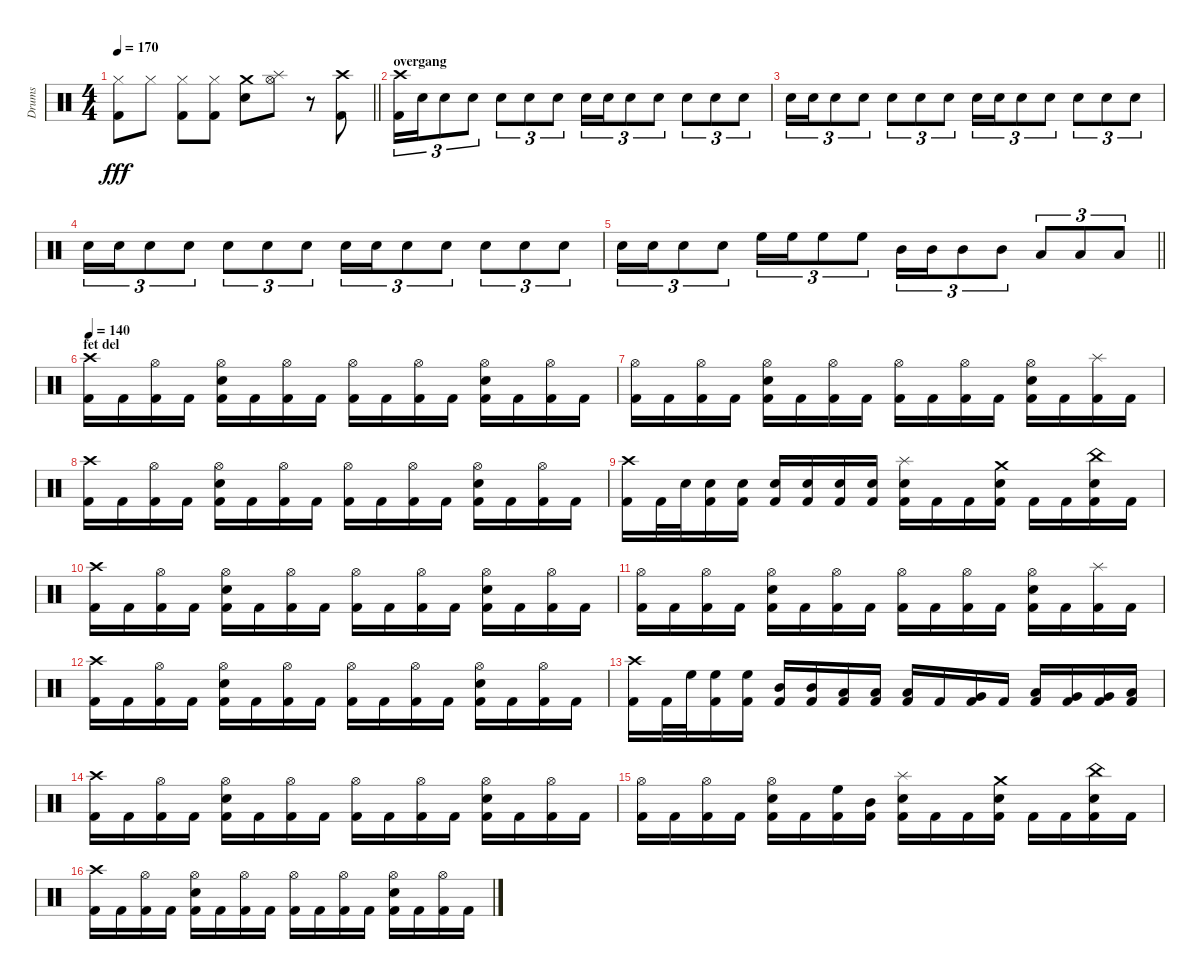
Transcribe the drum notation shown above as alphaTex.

\track ("Drums" "Drums") {instrument percussion}
\staff {score}
\articulation defaults
\ts (4 4)
\tempo 170
\clef neutral
\barLineRight lightlight
\ks c
("Hi-Hat (closed)" "Kick (hit) 2").8{dy fff} "Hi-Hat (closed)".8 ("Hi-Hat (closed)" "Kick (hit) 2").8 ("Hi-Hat (closed)" "Kick (hit) 2").8 ("Crash medium (hit)" "Snare (hit) 2").8 ("Splash (hit)" "Hi-Hat (open)").8 r.8 ("Crash high (hit)" "Kick (hit) 2").8 |
\section ("" "overgang")
("Crash high (hit)" "Kick (hit) 2").16{tu (3 2)} "Snare (hit) 2".16{tu (3 2)} "Snare (hit) 2".8{tu (3 2)} "Snare (hit) 2".8{tu (3 2)} "Snare (hit) 2".8{tu (3 2)} "Snare (hit) 2".8{tu (3 2)} "Snare (hit) 2".8{tu (3 2)} "Snare (hit) 2".16{tu (3 2)} "Snare (hit) 2".16{tu (3 2)} "Snare (hit) 2".8{tu (3 2)} "Snare (hit) 2".8{tu (3 2)} "Snare (hit) 2".8{tu (3 2)} "Snare (hit) 2".8{tu (3 2)} "Snare (hit) 2".8{tu (3 2)} |
"Snare (hit) 2".16{tu (3 2)} "Snare (hit) 2".16{tu (3 2)} "Snare (hit) 2".8{tu (3 2)} "Snare (hit) 2".8{tu (3 2)} "Snare (hit) 2".8{tu (3 2)} "Snare (hit) 2".8{tu (3 2)} "Snare (hit) 2".8{tu (3 2)} "Snare (hit) 2".16{tu (3 2)} "Snare (hit) 2".16{tu (3 2)} "Snare (hit) 2".8{tu (3 2)} "Snare (hit) 2".8{tu (3 2)} "Snare (hit) 2".8{tu (3 2)} "Snare (hit) 2".8{tu (3 2)} "Snare (hit) 2".8{tu (3 2)} |
"Snare (hit) 2".16{tu (3 2)} "Snare (hit) 2".16{tu (3 2)} "Snare (hit) 2".8{tu (3 2)} "Snare (hit) 2".8{tu (3 2)} "Snare (hit) 2".8{tu (3 2)} "Snare (hit) 2".8{tu (3 2)} "Snare (hit) 2".8{tu (3 2)} "Snare (hit) 2".16{tu (3 2)} "Snare (hit) 2".16{tu (3 2)} "Snare (hit) 2".8{tu (3 2)} "Snare (hit) 2".8{tu (3 2)} "Snare (hit) 2".8{tu (3 2)} "Snare (hit) 2".8{tu (3 2)} "Snare (hit) 2".8{tu (3 2)} |
\barLineRight lightlight "Snare (hit) 2".16{tu (3 2)} "Snare (hit) 2".16{tu (3 2)} "Snare (hit) 2".8{tu (3 2)} "Snare (hit) 2".8{tu (3 2)} "High Floor Tom (hit)".16{tu (3 2)} "High Floor Tom (hit)".16{tu (3 2)} "High Floor Tom (hit)".8{tu (3 2)} "High Floor Tom (hit)".8{tu (3 2)} "Mid Tom (hit)".16{tu (3 2)} "Mid Tom (hit)".16{tu (3 2)} "Mid Tom (hit)".8{tu (3 2)} "Mid Tom (hit)".8{tu (3 2)} "Low Tom (hit)".8{tu (3 2)} "Low Tom (hit)".8{tu (3 2)} "Low Tom (hit)".8{tu (3 2)}
|
\section ("" "fet del")
\tempo 140
("Crash high (hit)" "Kick (hit) 2").16 "Kick (hit) 2".16 ("Hi-Hat (open)" "Kick (hit) 2").16 "Kick (hit) 2".16 ("Snare (hit) 2" "Hi-Hat (open)" "Kick (hit) 2").16 "Kick (hit) 2".16 ("Hi-Hat (open)" "Kick (hit) 2").16 "Kick (hit) 2".16 ("Hi-Hat (open)" "Kick (hit) 2").16 "Kick (hit) 2".16 ("Hi-Hat (open)" "Kick (hit) 2").16 "Kick (hit) 2".16 ("Snare (hit) 2" "Hi-Hat (open)" "Kick (hit) 2").16 "Kick (hit) 2".16 ("Hi-Hat (open)" "Kick (hit) 2").16 "Kick (hit) 2".16 |
("Hi-Hat (open)" "Kick (hit) 2").16 "Kick (hit) 2".16 ("Hi-Hat (open)" "Kick (hit) 2").16 "Kick (hit) 2".16 ("Snare (hit) 2" "Hi-Hat (open)" "Kick (hit) 2").16 "Kick (hit) 2".16 ("Hi-Hat (open)" "Kick (hit) 2").16 "Kick (hit) 2".16 ("Hi-Hat (open)" "Kick (hit) 2").16 "Kick (hit) 2".16 ("Hi-Hat (open)" "Kick (hit) 2").16 "Kick (hit) 2".16 ("Snare (hit) 2" "Hi-Hat (open)" "Kick (hit) 2").16 "Kick (hit) 2".16 ("Splash (hit)" "Kick (hit) 2").16 "Kick (hit) 2".16 |
("Crash high (hit)" "Kick (hit) 2").16 "Kick (hit) 2".16 ("Hi-Hat (open)" "Kick (hit) 2").16 "Kick (hit) 2".16 ("Snare (hit) 2" "Hi-Hat (open)" "Kick (hit) 2").16 "Kick (hit) 2".16 ("Hi-Hat (open)" "Kick (hit) 2").16 "Kick (hit) 2".16 ("Hi-Hat (open)" "Kick (hit) 2").16 "Kick (hit) 2".16 ("Hi-Hat (open)" "Kick (hit) 2").16 "Kick (hit) 2".16 ("Snare (hit) 2" "Hi-Hat (open)" "Kick (hit) 2").16 "Kick (hit) 2".16 ("Hi-Hat (open)" "Kick (hit) 2").16 "Kick (hit) 2".16 |
("Crash high (hit)" "Kick (hit) 2").16 "Kick (hit) 2".32 "Snare (hit) 2".32 ("Snare (hit) 2" "Kick (hit) 2").16 ("Snare (hit) 2" "Kick (hit) 2").16 ("Snare (hit) 2" "Kick (hit) 2").16 ("Snare (hit) 2" "Kick (hit) 2").16 ("Snare (hit) 2" "Kick (hit) 2").16 ("Snare (hit) 2" "Kick (hit) 2").16 ("Splash (hit)" "Snare (hit) 2" "Kick (hit) 2").16 "Kick (hit) 2".16 "Kick (hit) 2".16 ("Crash medium (hit)" "Snare (hit) 2" "Kick (hit) 2").16 "Kick (hit) 2".16 "Kick (hit) 2".16 ("China (hit)" "Snare (hit) 2" "Kick (hit) 2").16 "Kick (hit) 2".16 |
("Crash high (hit)" "Kick (hit) 2").16 "Kick (hit) 2".16 ("Hi-Hat (open)" "Kick (hit) 2").16 "Kick (hit) 2".16 ("Snare (hit) 2" "Hi-Hat (open)" "Kick (hit) 2").16 "Kick (hit) 2".16 ("Hi-Hat (open)" "Kick (hit) 2").16 "Kick (hit) 2".16 ("Hi-Hat (open)" "Kick (hit) 2").16 "Kick (hit) 2".16 ("Hi-Hat (open)" "Kick (hit) 2").16 "Kick (hit) 2".16 ("Snare (hit) 2" "Hi-Hat (open)" "Kick (hit) 2").16 "Kick (hit) 2".16 ("Hi-Hat (open)" "Kick (hit) 2").16 "Kick (hit) 2".16 |
("Hi-Hat (open)" "Kick (hit) 2").16 "Kick (hit) 2".16 ("Hi-Hat (open)" "Kick (hit) 2").16 "Kick (hit) 2".16 ("Snare (hit) 2" "Hi-Hat (open)" "Kick (hit) 2").16 "Kick (hit) 2".16 ("Hi-Hat (open)" "Kick (hit) 2").16 "Kick (hit) 2".16 ("Hi-Hat (open)" "Kick (hit) 2").16 "Kick (hit) 2".16 ("Hi-Hat (open)" "Kick (hit) 2").16 "Kick (hit) 2".16 ("Snare (hit) 2" "Hi-Hat (open)" "Kick (hit) 2").16 "Kick (hit) 2".16 ("Splash (hit)" "Kick (hit) 2").16 "Kick (hit) 2".16 |
("Crash high (hit)" "Kick (hit) 2").16 "Kick (hit) 2".16 ("Hi-Hat (open)" "Kick (hit) 2").16 "Kick (hit) 2".16 ("Snare (hit) 2" "Hi-Hat (open)" "Kick (hit) 2").16 "Kick (hit) 2".16 ("Hi-Hat (open)" "Kick (hit) 2").16 "Kick (hit) 2".16 ("Hi-Hat (open)" "Kick (hit) 2").16 "Kick (hit) 2".16 ("Hi-Hat (open)" "Kick (hit) 2").16 "Kick (hit) 2".16 ("Snare (hit) 2" "Hi-Hat (open)" "Kick (hit) 2").16 "Kick (hit) 2".16 ("Hi-Hat (open)" "Kick (hit) 2").16 "Kick (hit) 2".16 |
("Crash high (hit)" "Kick (hit) 2").16 "Kick (hit) 2".32 "High Floor Tom (hit)".32 ("High Floor Tom (hit)" "Kick (hit) 2").16 ("High Floor Tom (hit)" "Kick (hit) 2").16 ("Mid Tom (hit)" "Kick (hit) 2").16 ("Mid Tom (hit)" "Kick (hit) 2").16 ("Low Tom (hit)" "Kick (hit) 2").16 ("Low Tom (hit)" "Kick (hit) 2").16 ("Low Floor Tom (hit)" "Kick (hit) 2").16 "Kick (hit) 2".16 ("Very Low Tom (hit)" "Kick (hit) 2").16 "Kick (hit) 2".16 ("Low Floor Tom (hit)" "Kick (hit) 2").16 ("Very Low Tom (hit)" "Kick (hit) 2").16 ("Very Low Tom (hit)" "Kick (hit) 2").16 ("Low Floor Tom (hit)" "Kick (hit) 2").16 |
("Crash high (hit)" "Kick (hit) 2").16 "Kick (hit) 2".16 ("Hi-Hat (open)" "Kick (hit) 2").16 "Kick (hit) 2".16 ("Snare (hit) 2" "Hi-Hat (open)" "Kick (hit) 2").16 "Kick (hit) 2".16 ("Hi-Hat (open)" "Kick (hit) 2").16 "Kick (hit) 2".16 ("Hi-Hat (open)" "Kick (hit) 2").16 "Kick (hit) 2".16 ("Hi-Hat (open)" "Kick (hit) 2").16 "Kick (hit) 2".16 ("Snare (hit) 2" "Hi-Hat (open)" "Kick (hit) 2").16 "Kick (hit) 2".16 ("Hi-Hat (open)" "Kick (hit) 2").16 "Kick (hit) 2".16 |
("Hi-Hat (open)" "Kick (hit) 2").16 "Kick (hit) 2".16 ("Hi-Hat (open)" "Kick (hit) 2").16 "Kick (hit) 2".16 ("Snare (hit) 2" "Hi-Hat (open)" "Kick (hit) 2").16 "Kick (hit) 2".16 ("High Floor Tom (hit)" "Kick (hit) 2").16 ("Mid Tom (hit)" "Kick (hit) 2").16 ("Splash (hit)" "Snare (hit) 2" "Kick (hit) 2").16 "Kick (hit) 2".16 "Kick (hit) 2".16 ("Crash medium (hit)" "Snare (hit) 2" "Kick (hit) 2").16 "Kick (hit) 2".16 "Kick (hit) 2".16 ("China (hit)" "Snare (hit) 2" "Kick (hit) 2").16 "Kick (hit) 2".16 |
("Crash high (hit)" "Kick (hit) 2").16 "Kick (hit) 2".16 ("Hi-Hat (open)" "Kick (hit) 2").16 "Kick (hit) 2".16 ("Snare (hit) 2" "Hi-Hat (open)" "Kick (hit) 2").16 "Kick (hit) 2".16 ("Hi-Hat (open)" "Kick (hit) 2").16 "Kick (hit) 2".16 ("Hi-Hat (open)" "Kick (hit) 2").16 "Kick (hit) 2".16 ("Hi-Hat (open)" "Kick (hit) 2").16 "Kick (hit) 2".16 ("Snare (hit) 2" "Hi-Hat (open)" "Kick (hit) 2").16 "Kick (hit) 2".16 ("Hi-Hat (open)" "Kick (hit) 2").16 "Kick (hit) 2".16
